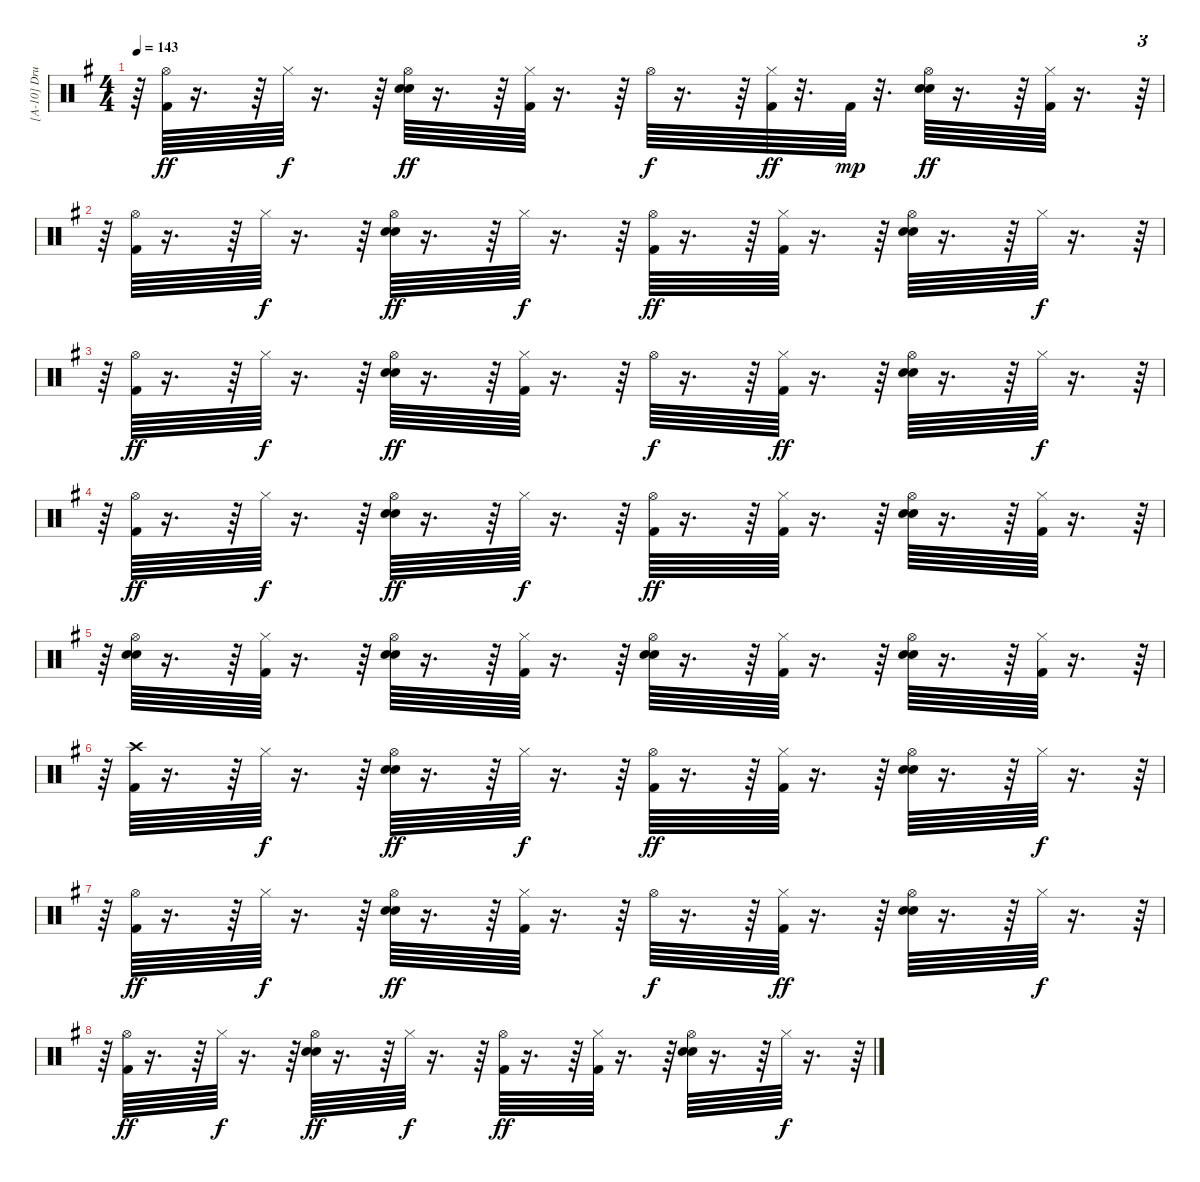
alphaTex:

\track ("[A-10] Drums" "[A-10] Dru") {instrument percussion}
\staff {score}
\articulation defaults
\ts (4 4)
\tempo 143
\clef neutral
\ks g
r.64{dy f} ("Hi-Hat (open)" "Kick (hit) 2").64{dy ff} r.16{d} r.64 "Hi-Hat (closed)".64{dy f} r.16{d} r.64 ("Hi-Hat (open)" "Electric Snare (hit)" "Snare (hit) 2").64{dy ff} r.16{d} r.64 ("Hi-Hat (closed)" "Kick (hit) 2").64 r.16{d} r.64 "Hi-Hat (open)".64{dy f} r.16{d} r.64 ("Hi-Hat (closed)" "Kick (hit) 2").64{dy ff} r.32{d} "Kick (hit) 2".64{dy mp} r.32{d} ("Hi-Hat (open)" "Electric Snare (hit)" "Snare (hit) 2").64{dy ff} r.16{d} r.64 ("Hi-Hat (closed)" "Kick (hit) 2").64 r.16{d} r.64{tu (3 2)} |
r.64 ("Hi-Hat (open)" "Kick (hit) 2").64 r.16{d} r.64 "Hi-Hat (closed)".64{dy f} r.16{d} r.64 ("Hi-Hat (open)" "Electric Snare (hit)" "Snare (hit) 2").64{dy ff} r.16{d} r.64 "Hi-Hat (closed)".64{dy f} r.16{d} r.64 ("Hi-Hat (open)" "Kick (hit) 2").64{dy ff} r.16{d} r.64 ("Hi-Hat (closed)" "Kick (hit) 2").64 r.16{d} r.64 ("Hi-Hat (open)" "Electric Snare (hit)" "Snare (hit) 2").64 r.16{d} r.64 "Hi-Hat (closed)".64{dy f} r.16{d} r.64{tu (3 2)} |
r.64 ("Hi-Hat (open)" "Kick (hit) 2").64{dy ff} r.16{d} r.64 "Hi-Hat (closed)".64{dy f} r.16{d} r.64 ("Hi-Hat (open)" "Electric Snare (hit)" "Snare (hit) 2").64{dy ff} r.16{d} r.64 ("Hi-Hat (closed)" "Kick (hit) 2").64 r.16{d} r.64 "Hi-Hat (open)".64{dy f} r.16{d} r.64 ("Hi-Hat (closed)" "Kick (hit) 2").64{dy ff} r.16{d} r.64 ("Hi-Hat (open)" "Electric Snare (hit)" "Snare (hit) 2").64 r.16{d} r.64 "Hi-Hat (closed)".64{dy f} r.16{d} r.64{tu (3 2)} |
r.64 ("Hi-Hat (open)" "Kick (hit) 2").64{dy ff} r.16{d} r.64 "Hi-Hat (closed)".64{dy f} r.16{d} r.64 ("Hi-Hat (open)" "Electric Snare (hit)" "Snare (hit) 2").64{dy ff} r.16{d} r.64 "Hi-Hat (closed)".64{dy f} r.16{d} r.64 ("Hi-Hat (open)" "Kick (hit) 2").64{dy ff} r.16{d} r.64 ("Hi-Hat (closed)" "Kick (hit) 2").64 r.16{d} r.64 ("Hi-Hat (open)" "Electric Snare (hit)" "Snare (hit) 2").64 r.16{d} r.64 ("Hi-Hat (closed)" "Kick (hit) 2").64 r.16{d} r.64{tu (3 2)} |
r.64 ("Hi-Hat (open)" "Electric Snare (hit)" "Snare (hit) 2").64 r.16{d} r.64 ("Hi-Hat (closed)" "Kick (hit) 2").64 r.16{d} r.64 ("Hi-Hat (open)" "Electric Snare (hit)" "Snare (hit) 2").64 r.16{d} r.64 ("Hi-Hat (closed)" "Kick (hit) 2").64 r.16{d} r.64 ("Hi-Hat (open)" "Electric Snare (hit)" "Snare (hit) 2").64 r.16{d} r.64 ("Hi-Hat (closed)" "Kick (hit) 2").64 r.16{d} r.64 ("Hi-Hat (open)" "Electric Snare (hit)" "Snare (hit) 2").64 r.16{d} r.64 ("Hi-Hat (closed)" "Kick (hit) 2").64 r.16{d} r.64{tu (3 2)} |
r.64 ("Crash high (hit)" "Kick (hit) 2").64 r.16{d} r.64 "Hi-Hat (closed)".64{dy f} r.16{d} r.64 ("Hi-Hat (open)" "Electric Snare (hit)" "Snare (hit) 2").64{dy ff} r.16{d} r.64 "Hi-Hat (closed)".64{dy f} r.16{d} r.64 ("Hi-Hat (open)" "Kick (hit) 2").64{dy ff} r.16{d} r.64 ("Hi-Hat (closed)" "Kick (hit) 2").64 r.16{d} r.64 ("Hi-Hat (open)" "Electric Snare (hit)" "Snare (hit) 2").64 r.16{d} r.64 "Hi-Hat (closed)".64{dy f} r.16{d} r.64{tu (3 2)} |
r.64 ("Hi-Hat (open)" "Kick (hit) 2").64{dy ff} r.16{d} r.64 "Hi-Hat (closed)".64{dy f} r.16{d} r.64 ("Hi-Hat (open)" "Electric Snare (hit)" "Snare (hit) 2").64{dy ff} r.16{d} r.64 ("Hi-Hat (closed)" "Kick (hit) 2").64 r.16{d} r.64 "Hi-Hat (open)".64{dy f} r.16{d} r.64 ("Hi-Hat (closed)" "Kick (hit) 2").64{dy ff} r.16{d} r.64 ("Hi-Hat (open)" "Electric Snare (hit)" "Snare (hit) 2").64 r.16{d} r.64 "Hi-Hat (closed)".64{dy f} r.16{d} r.64{tu (3 2)} |
r.64 ("Hi-Hat (open)" "Kick (hit) 2").64{dy ff} r.16{d} r.64 "Hi-Hat (closed)".64{dy f} r.16{d} r.64 ("Hi-Hat (open)" "Electric Snare (hit)" "Snare (hit) 2").64{dy ff} r.16{d} r.64 "Hi-Hat (closed)".64{dy f} r.16{d} r.64 ("Hi-Hat (open)" "Kick (hit) 2").64{dy ff} r.16{d} r.64 ("Hi-Hat (closed)" "Kick (hit) 2").64 r.16{d} r.64 ("Hi-Hat (open)" "Electric Snare (hit)" "Snare (hit) 2").64 r.16{d} r.64 "Hi-Hat (closed)".64{dy f} r.16{d} r.64{tu (3 2)}
